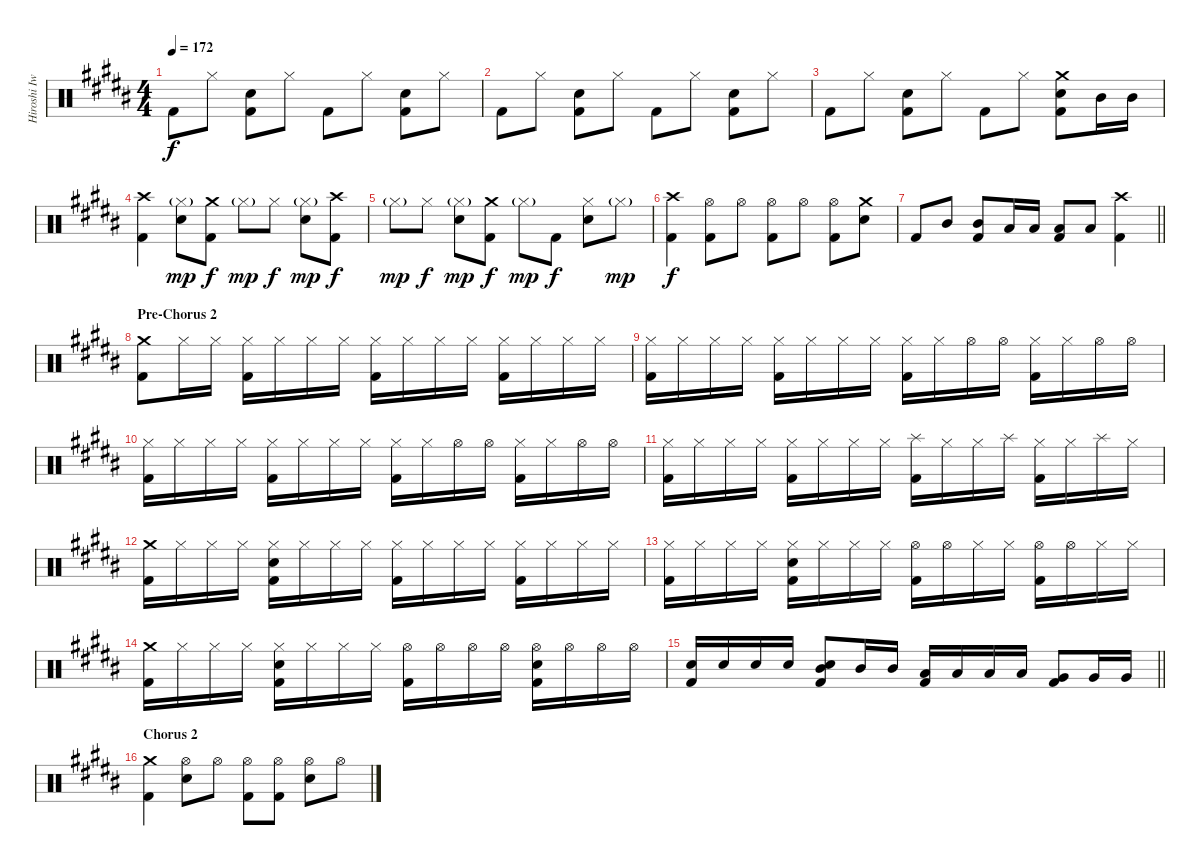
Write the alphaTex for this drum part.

\track ("Hiroshi Iwasaki - Drums" "Hiroshi Iw") {instrument percussion}
\staff {score}
\articulation defaults
\ts (4 4)
\tempo 172
\clef neutral
\ks b "Kick (hit) 2".8{dy f} "Hi-Hat (closed)".8
("Snare (hit) 2" "Kick (hit) 2").8 "Hi-Hat (closed)".8 "Kick (hit) 2".8 "Hi-Hat (closed)".8 ("Snare (hit) 2" "Kick (hit) 2").8 "Hi-Hat (closed)".8 |
"Kick (hit) 2".8 "Hi-Hat (closed)".8 ("Snare (hit) 2" "Kick (hit) 2").8 "Hi-Hat (closed)".8 "Kick (hit) 2".8 "Hi-Hat (closed)".8 ("Snare (hit) 2" "Kick (hit) 2").8 "Hi-Hat (closed)".8 |
"Kick (hit) 2".8 "Hi-Hat (closed)".8 ("Snare (hit) 2" "Kick (hit) 2").8 "Hi-Hat (closed)".8 "Kick (hit) 2".8 "Hi-Hat (closed)".8 ("Snare (hit) 2" "Crash medium (hit)" "Kick (hit) 2").8 "Mid Tom (hit)".16 "Mid Tom (hit)".16 |
("Crash high (hit)" "Kick (hit) 2").4 ("Snare (hit) 2" "Hi-Hat (closed)"{g}).8{dy mp} ("Crash medium (hit)" "Kick (hit) 2").8{dy f} "Hi-Hat (closed)"{g}.8{dy mp} "Hi-Hat (closed)".8{dy f} ("Snare (hit) 2" "Hi-Hat (closed)"{g}).8{dy mp} ("Crash high (hit)" "Kick (hit) 2").8{dy f} |
"Hi-Hat (closed)"{g}.8{dy mp} "Hi-Hat (closed)".8{dy f} ("Snare (hit) 2" "Hi-Hat (closed)"{g}).8{dy mp} ("Crash medium (hit)" "Kick (hit) 2").8{dy f} "Hi-Hat (closed)"{g}.8{dy mp} "Kick (hit) 2".8{dy f} ("Snare (hit) 2" "Hi-Hat (closed)").8 "Hi-Hat (closed)"{g}.8{dy mp} |
("Crash high (hit)" "Kick (hit) 2").4{dy f} ("Hi-Hat (open)" "Kick (hit) 2").8 "Hi-Hat (open)".8 ("Hi-Hat (open)" "Kick (hit) 2").8 "Hi-Hat (open)".8 ("Hi-Hat (open)" "Kick (hit) 2").8 ("Snare (hit) 2" "Crash medium (hit)").8 |
\barLineRight lightlight "Kick (hit) 2".8 "Mid Tom (hit)".8
("Mid Tom (hit)" "Kick (hit) 2").8 "Low Tom (hit)".16 "Low Tom (hit)".16 ("Low Tom (hit)" "Kick (hit) 2").8 "Low Tom (hit)".8 ("Crash high (hit)" "Kick (hit) 2").4 |
\section ("" "Pre-Chorus 2")
("Crash medium (hit)" "Kick (hit) 2").8 "Hi-Hat (closed)".16 "Hi-Hat (closed)".16 ("Hi-Hat (closed)" "Kick (hit) 2").16 "Hi-Hat (closed)".16 "Hi-Hat (closed)".16 "Hi-Hat (closed)".16 ("Hi-Hat (closed)" "Kick (hit) 2").16 "Hi-Hat (closed)".16 "Hi-Hat (closed)".16 "Hi-Hat (closed)".16 ("Hi-Hat (closed)" "Kick (hit) 2").16 "Hi-Hat (closed)".16 "Hi-Hat (closed)".16 "Hi-Hat (closed)".16 |
("Hi-Hat (closed)" "Kick (hit) 2").16 "Hi-Hat (closed)".16 "Hi-Hat (closed)".16 "Hi-Hat (closed)".16 ("Hi-Hat (closed)" "Kick (hit) 2").16 "Hi-Hat (closed)".16 "Hi-Hat (closed)".16 "Hi-Hat (closed)".16 ("Hi-Hat (closed)" "Kick (hit) 2").16 "Hi-Hat (closed)".16 "Hi-Hat (open)".16 "Hi-Hat (open)".16 ("Hi-Hat (closed)" "Kick (hit) 2").16 "Hi-Hat (closed)".16 "Hi-Hat (open)".16 "Hi-Hat (open)".16 |
("Hi-Hat (closed)" "Kick (hit) 2").16 "Hi-Hat (closed)".16 "Hi-Hat (closed)".16 "Hi-Hat (closed)".16 ("Hi-Hat (closed)" "Kick (hit) 2").16 "Hi-Hat (closed)".16 "Hi-Hat (closed)".16 "Hi-Hat (closed)".16 ("Hi-Hat (closed)" "Kick (hit) 2").16 "Hi-Hat (closed)".16 "Hi-Hat (open)".16 "Hi-Hat (open)".16 ("Hi-Hat (closed)" "Kick (hit) 2").16 "Hi-Hat (closed)".16 "Hi-Hat (open)".16 "Hi-Hat (open)".16 |
("Hi-Hat (closed)" "Kick (hit) 2").16 "Hi-Hat (closed)".16 "Hi-Hat (closed)".16 "Hi-Hat (closed)".16 ("Hi-Hat (closed)" "Kick (hit) 2").16 "Hi-Hat (closed)".16 "Hi-Hat (closed)".16 "Hi-Hat (closed)".16 ("Splash (hit)" "Kick (hit) 2").16 "Hi-Hat (closed)".16 "Hi-Hat (closed)".16 "Splash (hit)".16 ("Hi-Hat (closed)" "Kick (hit) 2").16 "Hi-Hat (closed)".16 "Splash (hit)".16 "Hi-Hat (closed)".16 |
("Crash medium (hit)" "Kick (hit) 2").16 "Hi-Hat (closed)".16 "Hi-Hat (closed)".16 "Hi-Hat (closed)".16 ("Snare (hit) 2" "Hi-Hat (closed)" "Kick (hit) 2").16 "Hi-Hat (closed)".16 "Hi-Hat (closed)".16 "Hi-Hat (closed)".16 ("Hi-Hat (closed)" "Kick (hit) 2").16 "Hi-Hat (closed)".16 "Hi-Hat (closed)".16 "Hi-Hat (closed)".16 ("Hi-Hat (closed)" "Kick (hit) 2").16 "Hi-Hat (closed)".16 "Hi-Hat (closed)".16 "Hi-Hat (closed)".16 |
("Hi-Hat (closed)" "Kick (hit) 2").16 "Hi-Hat (closed)".16 "Hi-Hat (closed)".16 "Hi-Hat (closed)".16 ("Snare (hit) 2" "Hi-Hat (closed)" "Kick (hit) 2").16 "Hi-Hat (closed)".16 "Hi-Hat (closed)".16 "Hi-Hat (closed)".16 ("Hi-Hat (open)" "Kick (hit) 2").16 "Hi-Hat (open)".16 "Hi-Hat (closed)".16 "Hi-Hat (closed)".16 ("Hi-Hat (open)" "Kick (hit) 2").16 "Hi-Hat (open)".16 "Hi-Hat (closed)".16 "Hi-Hat (closed)".16 |
("Crash medium (hit)" "Kick (hit) 2").16 "Hi-Hat (closed)".16 "Hi-Hat (closed)".16 "Hi-Hat (closed)".16 ("Snare (hit) 2" "Hi-Hat (closed)" "Kick (hit) 2").16 "Hi-Hat (closed)".16 "Hi-Hat (closed)".16 "Hi-Hat (closed)".16 ("Hi-Hat (open)" "Kick (hit) 2").16 "Hi-Hat (open)".16 "Hi-Hat (open)".16 "Hi-Hat (open)".16 ("Snare (hit) 2" "Hi-Hat (open)" "Kick (hit) 2").16 "Hi-Hat (open)".16 "Hi-Hat (open)".16 "Hi-Hat (open)".16 |
\barLineRight lightlight
("Snare (hit) 2" "Kick (hit) 2").16 "Snare (hit) 2".16 "Snare (hit) 2".16 "Snare (hit) 2".16 ("Snare (hit) 2" "Mid Tom (hit)" "Kick (hit) 2").8 "Mid Tom (hit)".16 "Mid Tom (hit)".16 ("Low Tom (hit)" "Kick (hit) 2").16 "Low Tom (hit)".16 "Low Tom (hit)".16 "Low Tom (hit)".16 ("Very Low Tom (hit)" "Kick (hit) 2").8 "Very Low Tom (hit)".16 "Very Low Tom (hit)".16 |
\section ("" "Chorus 2")
("Crash medium (hit)" "Kick (hit) 2").4 ("Snare (hit) 2" "Hi-Hat (open)").8 "Hi-Hat (open)".8 ("Hi-Hat (open)" "Kick (hit) 2").8 ("Hi-Hat (open)" "Kick (hit) 2").8 ("Snare (hit) 2" "Hi-Hat (open)").8 "Hi-Hat (open)".8
